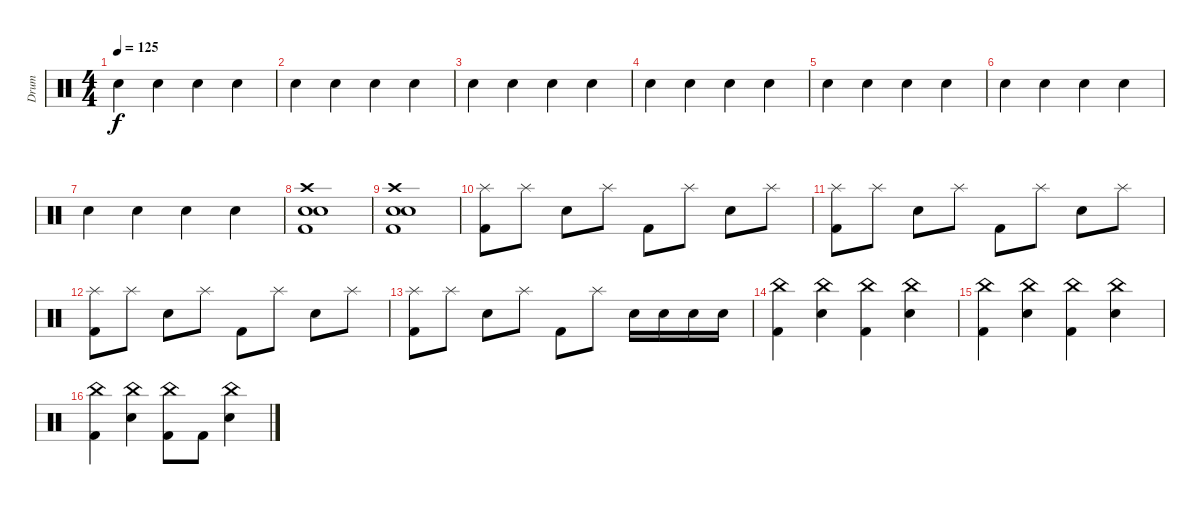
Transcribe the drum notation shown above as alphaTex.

\track ("Drum" "Drum") {instrument percussion}
\staff {score}
\articulation defaults
\ts (4 4)
\tempo 125
\clef neutral
\ks c "Snare (hit) 2".4{dy f} "Snare (hit) 2".4 "Snare (hit) 2".4 "Snare (hit) 2".4
|
"Snare (hit) 2".4 "Snare (hit) 2".4 "Snare (hit) 2".4 "Snare (hit) 2".4 |
"Snare (hit) 2".4 "Snare (hit) 2".4 "Snare (hit) 2".4 "Snare (hit) 2".4 |
"Snare (hit) 2".4 "Snare (hit) 2".4 "Snare (hit) 2".4 "Snare (hit) 2".4 |
"Snare (hit) 2".4 "Snare (hit) 2".4 "Snare (hit) 2".4 "Snare (hit) 2".4 |
"Snare (hit) 2".4 "Snare (hit) 2".4 "Snare (hit) 2".4 "Snare (hit) 2".4 |
"Snare (hit) 2".4 "Snare (hit) 2".4 "Snare (hit) 2".4 "Snare (hit) 2".4 |
("Crash high (hit)" "Electric Snare (hit)" "Snare (hit) 2" "Kick (hit) 2").1 |
("Crash high (hit)" "Electric Snare (hit)" "Snare (hit) 2" "Kick (hit) 2").1 |
("Splash (hit)" "Kick (hit) 2").8 "Splash (hit)".8 "Snare (hit) 2".8 "Splash (hit)".8 "Kick (hit) 2".8 "Splash (hit)".8 "Snare (hit) 2".8 "Splash (hit)".8 |
("Splash (hit)" "Kick (hit) 2").8 "Splash (hit)".8 "Snare (hit) 2".8 "Splash (hit)".8 "Kick (hit) 2".8 "Splash (hit)".8 "Snare (hit) 2".8 "Splash (hit)".8 |
("Splash (hit)" "Kick (hit) 2").8 "Splash (hit)".8 "Snare (hit) 2".8 "Splash (hit)".8 "Kick (hit) 2".8 "Splash (hit)".8 "Snare (hit) 2".8 "Splash (hit)".8 |
("Splash (hit)" "Kick (hit) 2").8 "Splash (hit)".8 "Snare (hit) 2".8 "Splash (hit)".8 "Kick (hit) 2".8 "Splash (hit)".8 "Snare (hit) 2".16 "Snare (hit) 2".16 "Snare (hit) 2".16 "Snare (hit) 2".16 |
("China (hit)" "Kick (hit) 2").4 ("China (hit)" "Snare (hit) 2").4 ("China (hit)" "Kick (hit) 2").4 ("China (hit)" "Snare (hit) 2").4 |
("China (hit)" "Kick (hit) 2").4 ("China (hit)" "Snare (hit) 2").4 ("China (hit)" "Kick (hit) 2").4 ("China (hit)" "Snare (hit) 2").4 |
("China (hit)" "Kick (hit) 2").4 ("China (hit)" "Snare (hit) 2").4 ("China (hit)" "Kick (hit) 2").8 "Kick (hit) 2".8 ("China (hit)" "Snare (hit) 2").4
